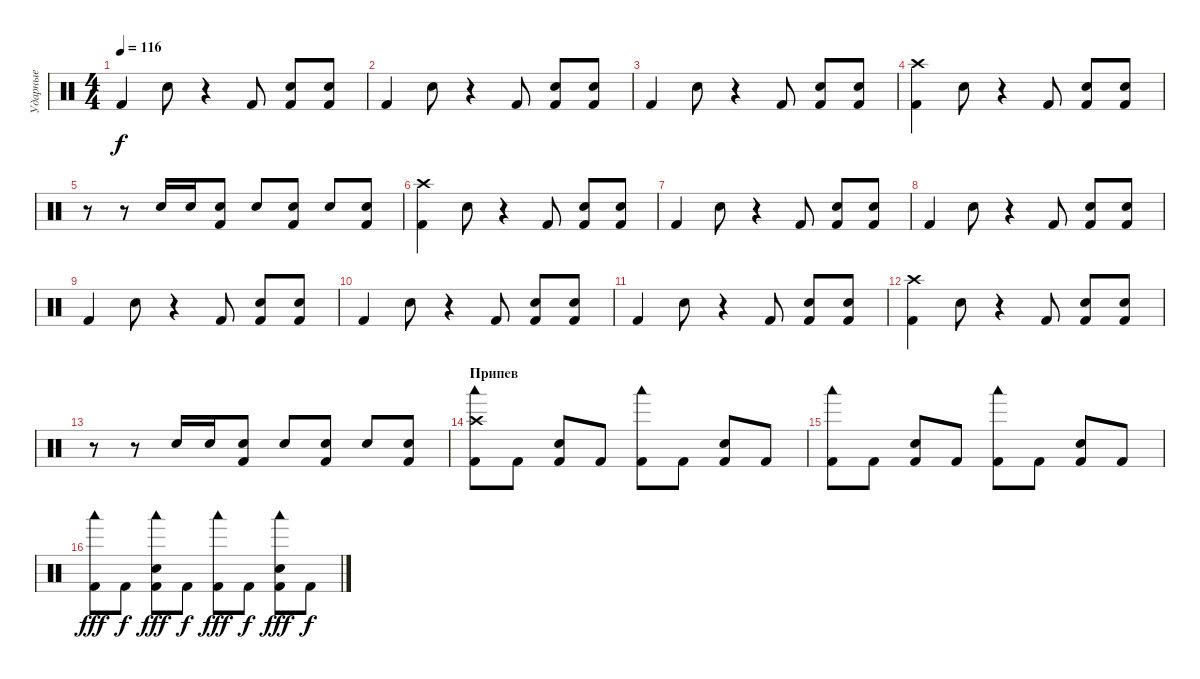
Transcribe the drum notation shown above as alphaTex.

\track ("Ударные" "Ударные") {instrument percussion}
\staff {score}
\articulation defaults
\ts (4 4)
\tempo 116
\clef neutral
\ks c "Kick (hit) 2".4{dy f} "Electric Snare (hit)".8
r.4 "Kick (hit) 2".8 ("Electric Snare (hit)" "Kick (hit) 2").8 ("Electric Snare (hit)" "Kick (hit) 2").8 |
"Kick (hit) 2".4 "Electric Snare (hit)".8 r.4 "Kick (hit) 2".8 ("Electric Snare (hit)" "Kick (hit) 2").8 ("Electric Snare (hit)" "Kick (hit) 2").8 |
"Kick (hit) 2".4 "Electric Snare (hit)".8 r.4 "Kick (hit) 2".8 ("Electric Snare (hit)" "Kick (hit) 2").8 ("Electric Snare (hit)" "Kick (hit) 2").8 |
("Crash high (hit)" "Kick (hit) 2").4 "Electric Snare (hit)".8 r.4 "Kick (hit) 2".8 ("Electric Snare (hit)" "Kick (hit) 2").8 ("Electric Snare (hit)" "Kick (hit) 2").8 |
r.8 r.8 "Electric Snare (hit)".16 "Electric Snare (hit)".16 ("Electric Snare (hit)" "Kick (hit) 2").8 "Electric Snare (hit)".8 ("Electric Snare (hit)" "Kick (hit) 2").8 "Electric Snare (hit)".8 ("Electric Snare (hit)" "Kick (hit) 2").8 |
("Crash high (hit)" "Kick (hit) 2").4 "Electric Snare (hit)".8 r.4 "Kick (hit) 2".8 ("Electric Snare (hit)" "Kick (hit) 2").8 ("Electric Snare (hit)" "Kick (hit) 2").8 |
"Kick (hit) 2".4 "Electric Snare (hit)".8 r.4 "Kick (hit) 2".8 ("Electric Snare (hit)" "Kick (hit) 2").8 ("Electric Snare (hit)" "Kick (hit) 2").8 |
"Kick (hit) 2".4 "Electric Snare (hit)".8 r.4 "Kick (hit) 2".8 ("Electric Snare (hit)" "Kick (hit) 2").8 ("Electric Snare (hit)" "Kick (hit) 2").8 |
"Kick (hit) 2".4 "Electric Snare (hit)".8 r.4 "Kick (hit) 2".8 ("Electric Snare (hit)" "Kick (hit) 2").8 ("Electric Snare (hit)" "Kick (hit) 2").8 |
"Kick (hit) 2".4 "Electric Snare (hit)".8 r.4 "Kick (hit) 2".8 ("Electric Snare (hit)" "Kick (hit) 2").8 ("Electric Snare (hit)" "Kick (hit) 2").8 |
"Kick (hit) 2".4 "Electric Snare (hit)".8 r.4 "Kick (hit) 2".8 ("Electric Snare (hit)" "Kick (hit) 2").8 ("Electric Snare (hit)" "Kick (hit) 2").8 |
("Crash high (hit)" "Kick (hit) 2").4 "Electric Snare (hit)".8 r.4 "Kick (hit) 2".8 ("Electric Snare (hit)" "Kick (hit) 2").8 ("Electric Snare (hit)" "Kick (hit) 2").8 |
r.8 r.8 "Electric Snare (hit)".16 "Electric Snare (hit)".16 ("Electric Snare (hit)" "Kick (hit) 2").8 "Electric Snare (hit)".8 ("Electric Snare (hit)" "Kick (hit) 2").8 "Electric Snare (hit)".8 ("Electric Snare (hit)" "Kick (hit) 2").8 |
\section ("" "Припев")
("Kick (hit) 2" "Crash high (hit)" "Woodblock low (hit)").8{volume 16} "Kick (hit) 2".8 ("Kick (hit) 2" "Electric Snare (hit)").8 "Kick (hit) 2".8 ("Kick (hit) 2" "Woodblock low (hit)").8 "Kick (hit) 2".8 ("Kick (hit) 2" "Electric Snare (hit)").8 "Kick (hit) 2".8 |
("Kick (hit) 2" "Woodblock low (hit)").8 "Kick (hit) 2".8 ("Kick (hit) 2" "Electric Snare (hit)").8 "Kick (hit) 2".8 ("Kick (hit) 2" "Woodblock low (hit)").8 "Kick (hit) 2".8 ("Kick (hit) 2" "Electric Snare (hit)").8 "Kick (hit) 2".8 |
("Kick (hit) 2" "Woodblock low (hit)").8{dy fff} "Kick (hit) 2".8{dy f} ("Kick (hit) 2" "Electric Snare (hit)" "Woodblock low (hit)").8{dy fff} "Kick (hit) 2".8{dy f} ("Kick (hit) 2" "Woodblock low (hit)").8{dy fff} "Kick (hit) 2".8{dy f} ("Kick (hit) 2" "Electric Snare (hit)" "Woodblock low (hit)").8{dy fff} "Kick (hit) 2".8{dy f}
